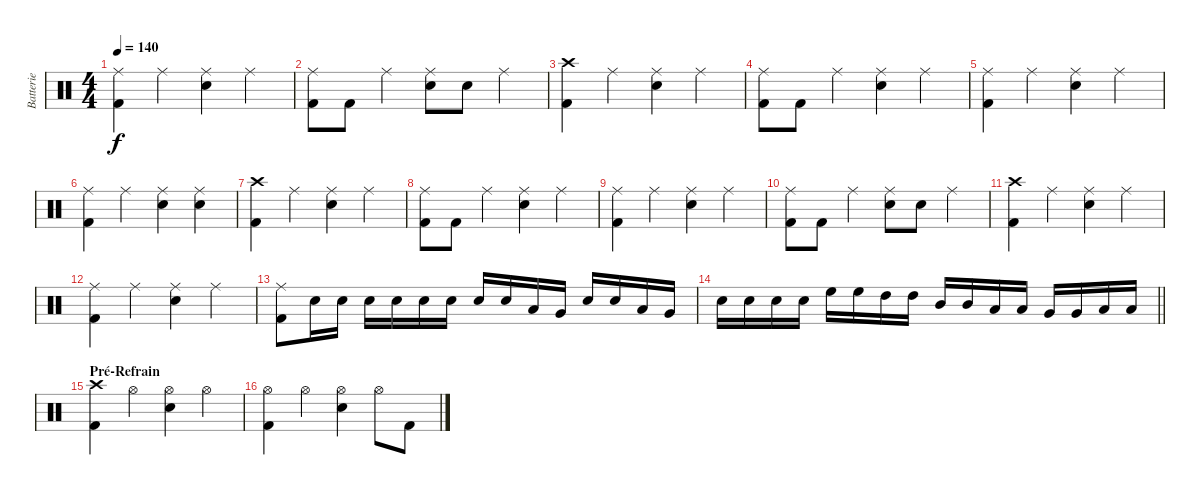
\track ("Batterie" "Batterie") {instrument percussion}
\staff {score}
\articulation defaults
\ts (4 4)
\tempo 140
\clef neutral
\ks c
("Ride (middle)" "Kick (hit) 2").4{dy f} "Ride (middle)".4 ("Ride (middle)" "Electric Snare (hit)").4 "Ride (middle)".4 |
("Ride (middle)" "Kick (hit) 2").8 "Kick (hit) 2".8 "Ride (middle)".4 ("Ride (middle)" "Electric Snare (hit)").8 "Electric Snare (hit)".8 "Ride (middle)".4 |
("Crash high (hit)" "Kick (hit) 2").4 "Ride (middle)".4 ("Ride (middle)" "Electric Snare (hit)").4 "Ride (middle)".4 |
("Ride (middle)" "Kick (hit) 2").8 "Kick (hit) 2".8 "Ride (middle)".4 ("Ride (middle)" "Electric Snare (hit)").4 "Ride (middle)".4 |
("Ride (middle)" "Kick (hit) 2").4 "Ride (middle)".4 ("Ride (middle)" "Electric Snare (hit)").4 "Ride (middle)".4 |
("Ride (middle)" "Kick (hit) 2").4 "Ride (middle)".4 ("Ride (middle)" "Electric Snare (hit)").4 ("Ride (middle)" "Electric Snare (hit)").4 |
("Crash high (hit)" "Kick (hit) 2").4 "Ride (middle)".4 ("Ride (middle)" "Electric Snare (hit)").4 "Ride (middle)".4 |
("Ride (middle)" "Kick (hit) 2").8 "Kick (hit) 2".8 "Ride (middle)".4 ("Ride (middle)" "Electric Snare (hit)").4 "Ride (middle)".4 |
("Ride (middle)" "Kick (hit) 2").4 "Ride (middle)".4 ("Ride (middle)" "Electric Snare (hit)").4 "Ride (middle)".4 |
("Ride (middle)" "Kick (hit) 2").8 "Kick (hit) 2".8 "Ride (middle)".4 ("Ride (middle)" "Electric Snare (hit)").8 "Electric Snare (hit)".8 "Ride (middle)".4 |
("Crash high (hit)" "Kick (hit) 2").4 "Ride (middle)".4 ("Ride (middle)" "Electric Snare (hit)").4 "Ride (middle)".4 |
("Ride (middle)" "Kick (hit) 2").4 "Ride (middle)".4 ("Ride (middle)" "Electric Snare (hit)").4 "Ride (middle)".4 |
("Ride (middle)" "Kick (hit) 2").8 "Electric Snare (hit)".16 "Electric Snare (hit)".16 "Electric Snare (hit)".16 "Electric Snare (hit)".16 "Electric Snare (hit)".16 "Electric Snare (hit)".16 "Electric Snare (hit)".16 "Electric Snare (hit)".16 "Low Tom (hit)".16 "Very Low Tom (hit)".16 "Electric Snare (hit)".16 "Electric Snare (hit)".16 "Low Tom (hit)".16 "Very Low Tom (hit)".16 |
\barLineRight lightlight "Electric Snare (hit)".16 "Electric Snare (hit)".16 "Electric Snare (hit)".16 "Electric Snare (hit)".16 "High Floor Tom (hit)".16 "High Floor Tom (hit)".16 "High Tom (hit)".16 "High Tom (hit)".16 "Mid Tom (hit)".16 "Mid Tom (hit)".16 "Low Tom (hit)".16 "Low Tom (hit)".16 "Very Low Tom (hit)".16 "Very Low Tom (hit)".16 "Low Floor Tom (hit)".16 "Low Floor Tom (hit)".16
|
\section ("" "Pré-Refrain")
("Crash high (hit)" "Kick (hit) 2").4 "Hi-Hat (open)".4 ("Hi-Hat (open)" "Electric Snare (hit)").4 "Hi-Hat (open)".4 |
("Hi-Hat (open)" "Kick (hit) 2").4 "Hi-Hat (open)".4 ("Hi-Hat (open)" "Electric Snare (hit)").4 "Hi-Hat (open)".8 "Kick (hit) 2".8
